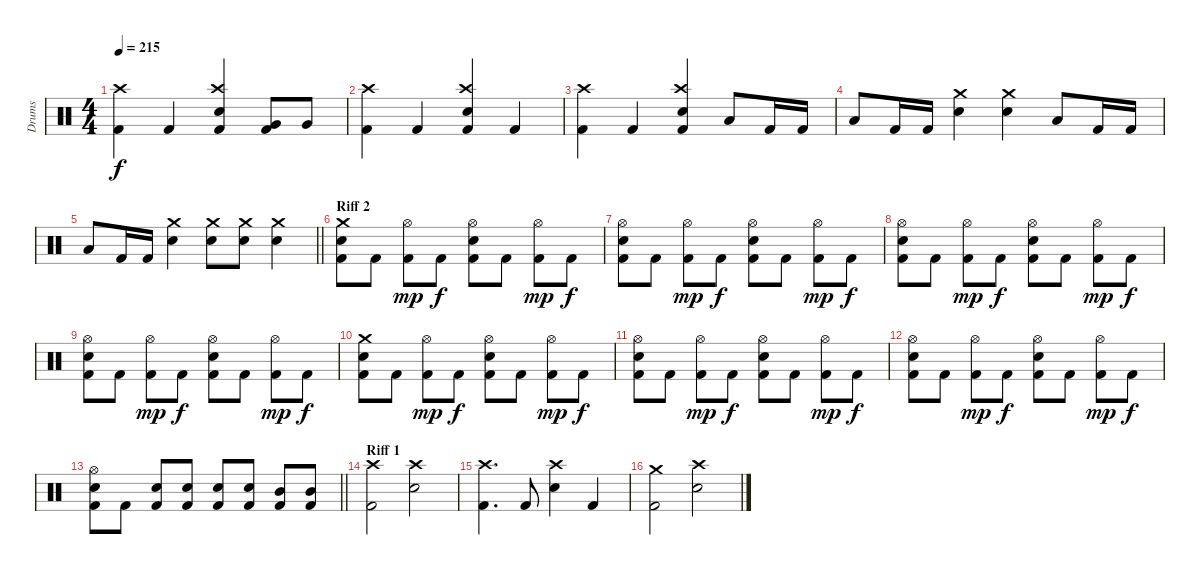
\track ("Drums" "Drums") {instrument percussion}
\staff {score}
\articulation defaults
\ts (4 4)
\tempo 215
\clef neutral
\ks c
("Kick (hit) 2" "Crash high (hit)").4{dy f} "Kick (hit) 2".4 ("Kick (hit) 2" "Electric Snare (hit)" "Crash high (hit)").4 ("Kick (hit) 2" "Very Low Tom (hit)").8 "Very Low Tom (hit)".8 |
("Kick (hit) 2" "Crash high (hit)").4 "Kick (hit) 2".4 ("Kick (hit) 2" "Electric Snare (hit)" "Crash high (hit)").4 "Kick (hit) 2".4 |
("Kick (hit) 2" "Crash high (hit)").4 "Kick (hit) 2".4 ("Kick (hit) 2" "Electric Snare (hit)" "Crash high (hit)").4 "Low Tom (hit)".8 "Kick (hit) 2".16 "Kick (hit) 2".16 |
"Low Tom (hit)".8 "Kick (hit) 2".16 "Kick (hit) 2".16 ("Electric Snare (hit)" "Crash medium (hit)").4 ("Electric Snare (hit)" "Crash medium (hit)").4 "Low Tom (hit)".8 "Kick (hit) 2".16 "Kick (hit) 2".16 |
\barLineRight lightlight "Low Tom (hit)".8 "Kick (hit) 2".16 "Kick (hit) 2".16
("Electric Snare (hit)" "Crash medium (hit)").4 ("Electric Snare (hit)" "Crash medium (hit)").8 ("Electric Snare (hit)" "Crash medium (hit)").8 ("Electric Snare (hit)" "Crash medium (hit)").4 |
\section ("" "Riff 2")
("Crash medium (hit)" "Kick (hit) 2" "Electric Snare (hit)").8 "Kick (hit) 2".8 ("Hi-Hat (open)" "Kick (hit) 2").8{dy mp} "Kick (hit) 2".8{dy f} ("Hi-Hat (open)" "Kick (hit) 2" "Electric Snare (hit)").8 "Kick (hit) 2".8 ("Hi-Hat (open)" "Kick (hit) 2").8{dy mp} "Kick (hit) 2".8{dy f} |
("Hi-Hat (open)" "Kick (hit) 2" "Electric Snare (hit)").8 "Kick (hit) 2".8 ("Hi-Hat (open)" "Kick (hit) 2").8{dy mp} "Kick (hit) 2".8{dy f} ("Hi-Hat (open)" "Kick (hit) 2" "Electric Snare (hit)").8 "Kick (hit) 2".8 ("Hi-Hat (open)" "Kick (hit) 2").8{dy mp} "Kick (hit) 2".8{dy f} |
("Hi-Hat (open)" "Kick (hit) 2" "Electric Snare (hit)").8 "Kick (hit) 2".8 ("Hi-Hat (open)" "Kick (hit) 2").8{dy mp} "Kick (hit) 2".8{dy f} ("Hi-Hat (open)" "Kick (hit) 2" "Electric Snare (hit)").8 "Kick (hit) 2".8 ("Hi-Hat (open)" "Kick (hit) 2").8{dy mp} "Kick (hit) 2".8{dy f} |
("Hi-Hat (open)" "Kick (hit) 2" "Electric Snare (hit)").8 "Kick (hit) 2".8 ("Hi-Hat (open)" "Kick (hit) 2").8{dy mp} "Kick (hit) 2".8{dy f} ("Hi-Hat (open)" "Kick (hit) 2" "Electric Snare (hit)").8 "Kick (hit) 2".8 ("Hi-Hat (open)" "Kick (hit) 2").8{dy mp} "Kick (hit) 2".8{dy f} |
("Crash medium (hit)" "Kick (hit) 2" "Electric Snare (hit)").8 "Kick (hit) 2".8 ("Hi-Hat (open)" "Kick (hit) 2").8{dy mp} "Kick (hit) 2".8{dy f} ("Hi-Hat (open)" "Kick (hit) 2" "Electric Snare (hit)").8 "Kick (hit) 2".8 ("Hi-Hat (open)" "Kick (hit) 2").8{dy mp} "Kick (hit) 2".8{dy f} |
("Hi-Hat (open)" "Kick (hit) 2" "Electric Snare (hit)").8 "Kick (hit) 2".8 ("Hi-Hat (open)" "Kick (hit) 2").8{dy mp} "Kick (hit) 2".8{dy f} ("Hi-Hat (open)" "Kick (hit) 2" "Electric Snare (hit)").8 "Kick (hit) 2".8 ("Hi-Hat (open)" "Kick (hit) 2").8{dy mp} "Kick (hit) 2".8{dy f} |
("Hi-Hat (open)" "Kick (hit) 2" "Electric Snare (hit)").8 "Kick (hit) 2".8 ("Hi-Hat (open)" "Kick (hit) 2").8{dy mp} "Kick (hit) 2".8{dy f} ("Hi-Hat (open)" "Kick (hit) 2" "Electric Snare (hit)").8 "Kick (hit) 2".8 ("Hi-Hat (open)" "Kick (hit) 2").8{dy mp} "Kick (hit) 2".8{dy f} |
\barLineRight lightlight
("Hi-Hat (open)" "Kick (hit) 2" "Electric Snare (hit)").8 "Kick (hit) 2".8 ("Kick (hit) 2" "Electric Snare (hit)").8 ("Kick (hit) 2" "Electric Snare (hit)").8 ("Kick (hit) 2" "Electric Snare (hit)").8 ("Kick (hit) 2" "Electric Snare (hit)").8 ("Kick (hit) 2" "Mid Tom (hit)").8 ("Kick (hit) 2" "Mid Tom (hit)").8 |
\section ("" "Riff 1")
("Kick (hit) 2" "Crash high (hit)").2 ("Electric Snare (hit)" "Crash high (hit)").2 |
("Kick (hit) 2" "Crash high (hit)").4{d} "Kick (hit) 2".8 ("Electric Snare (hit)" "Crash high (hit)").4 "Kick (hit) 2".4 |
("Kick (hit) 2" "Crash medium (hit)").2 ("Electric Snare (hit)" "Crash high (hit)").2
